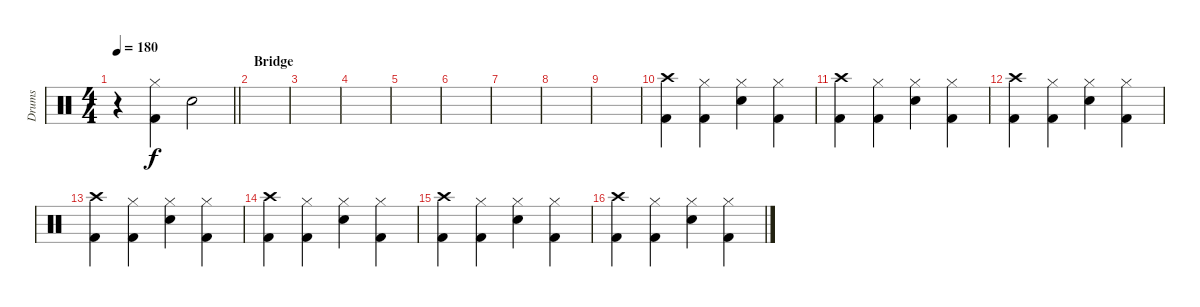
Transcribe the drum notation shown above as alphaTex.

\track ("Drums" "Drums") {instrument percussion}
\staff {score}
\articulation defaults
\ts (4 4)
\tempo 180
\clef neutral
\barLineRight lightlight
\ks c
r.4{dy f} ("Kick (hit) 2" "Hi-Hat (closed)").4 "Electric Snare (hit)".2 |
\section ("" "Bridge")
|
|
|
|
|
|
|
|
("Kick (hit) 2" "Crash high (hit)").4 ("Kick (hit) 2" "Hi-Hat (closed)").4 ("Electric Snare (hit)" "Hi-Hat (closed)").4 ("Kick (hit) 2" "Hi-Hat (closed)").4 |
("Kick (hit) 2" "Crash high (hit)").4 ("Kick (hit) 2" "Hi-Hat (closed)").4 ("Electric Snare (hit)" "Hi-Hat (closed)").4 ("Kick (hit) 2" "Hi-Hat (closed)").4 |
("Kick (hit) 2" "Crash high (hit)").4 ("Kick (hit) 2" "Hi-Hat (closed)").4 ("Electric Snare (hit)" "Hi-Hat (closed)").4 ("Kick (hit) 2" "Hi-Hat (closed)").4 |
("Kick (hit) 2" "Crash high (hit)").4 ("Kick (hit) 2" "Hi-Hat (closed)").4 ("Electric Snare (hit)" "Hi-Hat (closed)").4 ("Kick (hit) 2" "Hi-Hat (closed)").4 |
("Kick (hit) 2" "Crash high (hit)").4 ("Kick (hit) 2" "Hi-Hat (closed)").4 ("Electric Snare (hit)" "Hi-Hat (closed)").4 ("Kick (hit) 2" "Hi-Hat (closed)").4 |
("Kick (hit) 2" "Crash high (hit)").4 ("Kick (hit) 2" "Hi-Hat (closed)").4 ("Electric Snare (hit)" "Hi-Hat (closed)").4 ("Kick (hit) 2" "Hi-Hat (closed)").4 |
("Kick (hit) 2" "Crash high (hit)").4 ("Kick (hit) 2" "Hi-Hat (closed)").4 ("Electric Snare (hit)" "Hi-Hat (closed)").4 ("Kick (hit) 2" "Hi-Hat (closed)").4
